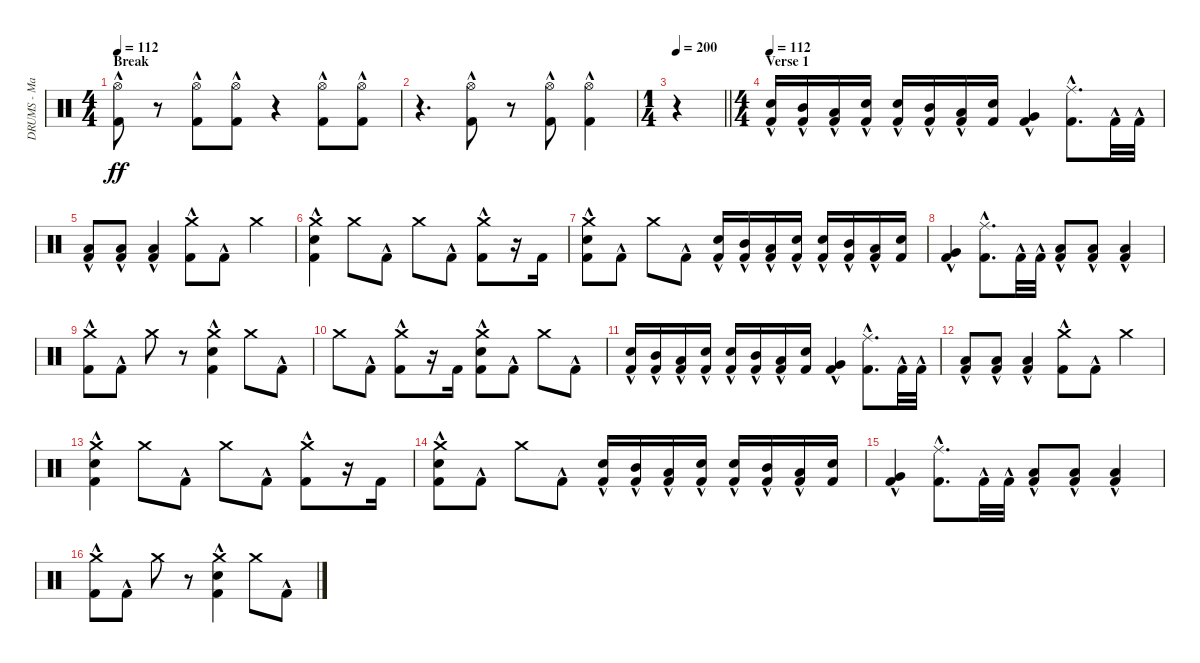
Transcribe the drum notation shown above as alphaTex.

\track ("DRUMS - Mario Duplantier" "DRUMS - Ma") {instrument percussion}
\staff {score}
\articulation defaults
\ts (4 4)
\section ("" "Break")
\tempo 112
\clef neutral
\ks c
("Hi-Hat (open)" "Kick (hit) 2"{hac}).8{dy ff} r.8 ("Hi-Hat (open)" "Kick (hit) 2"{hac}).8 ("Hi-Hat (open)" "Kick (hit) 2"{hac}).8 r.4 ("Hi-Hat (open)" "Kick (hit) 2"{hac}).8 ("Hi-Hat (open)" "Kick (hit) 2"{hac}).8 |
r.4{d} ("Hi-Hat (open)" "Kick (hit) 2"{hac}).8 r.8 ("Hi-Hat (open)" "Kick (hit) 2"{hac}).8 ("Hi-Hat (open)" "Kick (hit) 2"{hac}).4 |
\ts (1 4)
\tempo 200
\barLineRight lightlight
r.4 |
\ts (4 4)
\section ("" "Verse 1")
\tempo 112
("Electric Snare (hit)" "Kick (hit) 2"{hac}).16 ("Mid Tom (hit)" "Kick (hit) 2"{hac}).16 ("Low Tom (hit)" "Kick (hit) 2"{hac}).16 ("Electric Snare (hit)" "Kick (hit) 2"{hac}).16 ("Electric Snare (hit)" "Kick (hit) 2"{hac}).16 ("Mid Tom (hit)" "Kick (hit) 2"{hac}).16 ("Low Tom (hit)" "Kick (hit) 2"{hac}).16 ("Electric Snare (hit)" "Kick (hit) 2").16 ("Very Low Tom (hit)" "Kick (hit) 2"{hac}).4 ("Ride (middle)" "Kick (hit) 2"{hac}).8{d} "Kick (hit) 2"{hac}.32 "Kick (hit) 2"{hac}.32 |
("Low Tom (hit)" "Kick (hit) 2"{hac}).8 ("Low Tom (hit)" "Kick (hit) 2"{hac}).8 ("Low Tom (hit)" "Kick (hit) 2"{hac}).4 ("Crash medium (hit)" "Kick (hit) 2"{hac}).8 "Kick (hit) 2"{hac}.8 "Crash medium (hit)".4 |
("Crash medium (hit)" "Electric Snare (hit)" "Kick (hit) 2"{hac}).4 "Crash medium (hit)".8 "Kick (hit) 2"{hac}.8 "Crash medium (hit)".8 "Kick (hit) 2"{hac}.8 ("Crash medium (hit)" "Kick (hit) 2"{hac}).8 r.16 "Kick (hit) 2".16 |
("Crash medium (hit)" "Electric Snare (hit)" "Kick (hit) 2"{hac}).8 "Kick (hit) 2"{hac}.8 "Crash medium (hit)".8 "Kick (hit) 2"{hac}.8 ("Electric Snare (hit)" "Kick (hit) 2"{hac}).16 ("Mid Tom (hit)" "Kick (hit) 2"{hac}).16 ("Low Tom (hit)" "Kick (hit) 2"{hac}).16 ("Electric Snare (hit)" "Kick (hit) 2"{hac}).16 ("Electric Snare (hit)" "Kick (hit) 2"{hac}).16 ("Mid Tom (hit)" "Kick (hit) 2"{hac}).16 ("Low Tom (hit)" "Kick (hit) 2"{hac}).16 ("Electric Snare (hit)" "Kick (hit) 2").16 |
("Very Low Tom (hit)" "Kick (hit) 2"{hac}).4 ("Ride (middle)" "Kick (hit) 2"{hac}).8{d} "Kick (hit) 2"{hac}.32 "Kick (hit) 2"{hac}.32 ("Low Tom (hit)" "Kick (hit) 2"{hac}).8 ("Low Tom (hit)" "Kick (hit) 2"{hac}).8 ("Low Tom (hit)" "Kick (hit) 2"{hac}).4 |
("Crash medium (hit)" "Kick (hit) 2"{hac}).8 "Kick (hit) 2"{hac}.8 "Crash medium (hit)".8 r.8 ("Crash medium (hit)" "Electric Snare (hit)" "Kick (hit) 2"{hac}).4 "Crash medium (hit)".8 "Kick (hit) 2"{hac}.8 |
"Crash medium (hit)".8 "Kick (hit) 2"{hac}.8 ("Crash medium (hit)" "Kick (hit) 2"{hac}).8 r.16 "Kick (hit) 2".16 ("Crash medium (hit)" "Electric Snare (hit)" "Kick (hit) 2"{hac}).8 "Kick (hit) 2"{hac}.8 "Crash medium (hit)".8 "Kick (hit) 2"{hac}.8 |
("Electric Snare (hit)" "Kick (hit) 2"{hac}).16 ("Mid Tom (hit)" "Kick (hit) 2"{hac}).16 ("Low Tom (hit)" "Kick (hit) 2"{hac}).16 ("Electric Snare (hit)" "Kick (hit) 2"{hac}).16 ("Electric Snare (hit)" "Kick (hit) 2"{hac}).16 ("Mid Tom (hit)" "Kick (hit) 2"{hac}).16 ("Low Tom (hit)" "Kick (hit) 2"{hac}).16 ("Electric Snare (hit)" "Kick (hit) 2").16 ("Very Low Tom (hit)" "Kick (hit) 2"{hac}).4 ("Ride (middle)" "Kick (hit) 2"{hac}).8{d} "Kick (hit) 2"{hac}.32 "Kick (hit) 2"{hac}.32 |
("Low Tom (hit)" "Kick (hit) 2"{hac}).8 ("Low Tom (hit)" "Kick (hit) 2"{hac}).8 ("Low Tom (hit)" "Kick (hit) 2"{hac}).4 ("Crash medium (hit)" "Kick (hit) 2"{hac}).8 "Kick (hit) 2"{hac}.8 "Crash medium (hit)".4 |
("Crash medium (hit)" "Electric Snare (hit)" "Kick (hit) 2"{hac}).4 "Crash medium (hit)".8 "Kick (hit) 2"{hac}.8 "Crash medium (hit)".8 "Kick (hit) 2"{hac}.8 ("Crash medium (hit)" "Kick (hit) 2"{hac}).8 r.16 "Kick (hit) 2".16 |
("Crash medium (hit)" "Electric Snare (hit)" "Kick (hit) 2"{hac}).8 "Kick (hit) 2"{hac}.8 "Crash medium (hit)".8 "Kick (hit) 2"{hac}.8 ("Electric Snare (hit)" "Kick (hit) 2"{hac}).16 ("Mid Tom (hit)" "Kick (hit) 2"{hac}).16 ("Low Tom (hit)" "Kick (hit) 2"{hac}).16 ("Electric Snare (hit)" "Kick (hit) 2"{hac}).16 ("Electric Snare (hit)" "Kick (hit) 2"{hac}).16 ("Mid Tom (hit)" "Kick (hit) 2"{hac}).16 ("Low Tom (hit)" "Kick (hit) 2"{hac}).16 ("Electric Snare (hit)" "Kick (hit) 2").16 |
("Very Low Tom (hit)" "Kick (hit) 2"{hac}).4 ("Ride (middle)" "Kick (hit) 2"{hac}).8{d} "Kick (hit) 2"{hac}.32 "Kick (hit) 2"{hac}.32 ("Low Tom (hit)" "Kick (hit) 2"{hac}).8 ("Low Tom (hit)" "Kick (hit) 2"{hac}).8 ("Low Tom (hit)" "Kick (hit) 2"{hac}).4 |
("Crash medium (hit)" "Kick (hit) 2"{hac}).8 "Kick (hit) 2"{hac}.8 "Crash medium (hit)".8 r.8 ("Crash medium (hit)" "Electric Snare (hit)" "Kick (hit) 2"{hac}).4 "Crash medium (hit)".8 "Kick (hit) 2"{hac}.8
